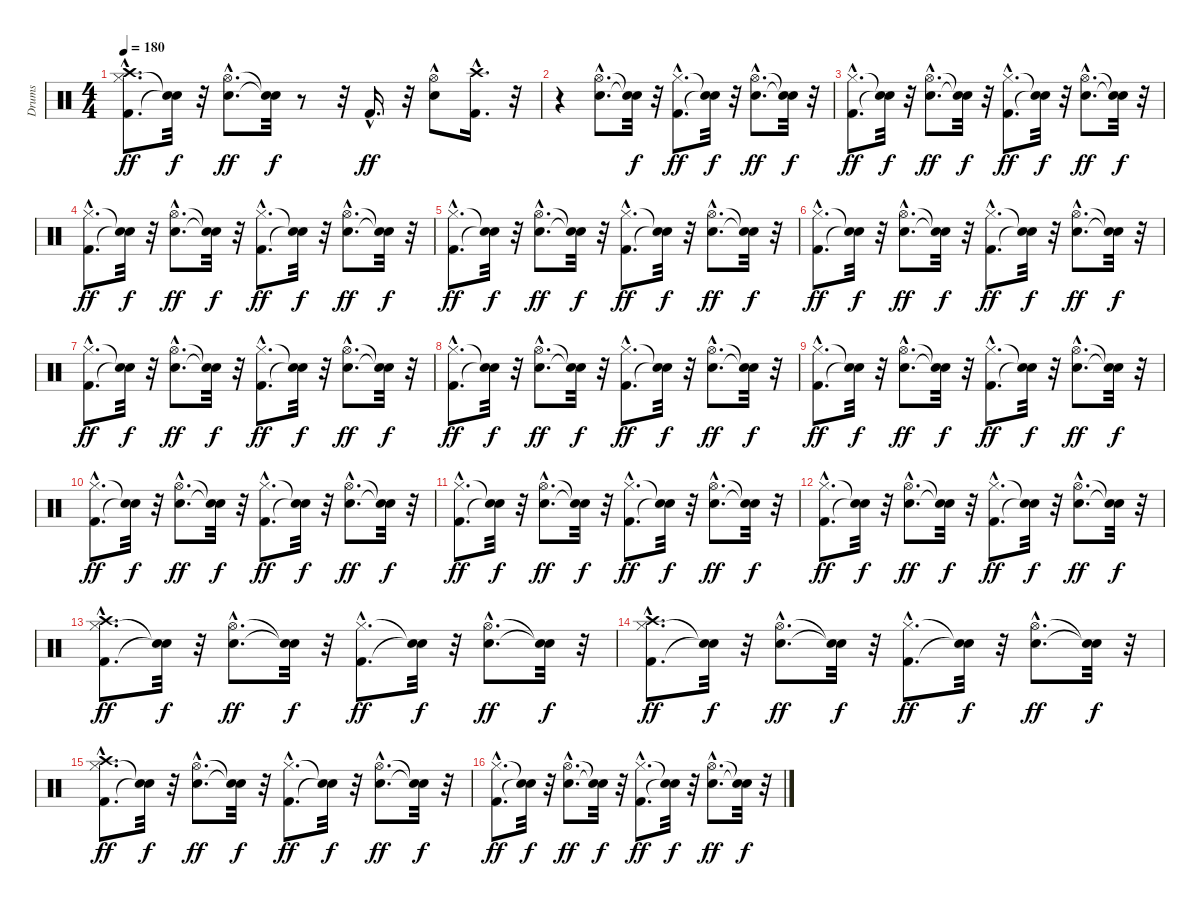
\track ("Drums" "Drums") {instrument percussion}
\staff {score}
\articulation defaults
\ts (4 4)
\tempo 180
\clef neutral
\ks c
("Kick (hit) 2"{hac} "Hi-Hat (closed)"{hac} "Crash high (hit)"{hac}).8{d dy ff} ("Snare (hit)"{t} "Snare (hit)"{t}).32{dy f} r.32 ("Snare (hit) 2"{hac} "Hi-Hat (open)"{hac}).8{d dy ff} ("Snare (hit)"{t} "Snare (hit)"{t}).32{dy f} r.8 r.32 "Kick (hit) 2"{hac}.16{d dy ff} r.32 ("Snare (hit) 2"{hac} "Hi-Hat (open)"{hac}).8 ("Kick (hit) 2"{hac} "Crash high (hit)"{hac}).16{d} r.32 |
r.4 ("Snare (hit) 2"{hac} "Hi-Hat (open)"{hac}).8{d} ("Snare (hit)"{t} "Snare (hit)"{t}).32{dy f} r.32 ("Kick (hit) 2"{hac} "Hi-Hat (closed)"{hac}).8{d dy ff} ("Snare (hit)"{t} "Snare (hit)"{t}).32{dy f} r.32 ("Snare (hit) 2"{hac} "Hi-Hat (open)"{hac}).8{d dy ff} ("Snare (hit)"{t} "Snare (hit)"{t}).32{dy f} r.32 |
("Kick (hit) 2"{hac} "Hi-Hat (closed)"{hac}).8{d dy ff} ("Snare (hit)"{t} "Snare (hit)"{t}).32{dy f} r.32 ("Snare (hit) 2"{hac} "Hi-Hat (open)"{hac}).8{d dy ff} ("Snare (hit)"{t} "Snare (hit)"{t}).32{dy f} r.32 ("Kick (hit) 2"{hac} "Hi-Hat (closed)"{hac}).8{d dy ff} ("Snare (hit)"{t} "Snare (hit)"{t}).32{dy f} r.32 ("Snare (hit) 2"{hac} "Hi-Hat (open)"{hac}).8{d dy ff} ("Snare (hit)"{t} "Snare (hit)"{t}).32{dy f} r.32 |
("Kick (hit) 2"{hac} "Hi-Hat (closed)"{hac}).8{d dy ff} ("Snare (hit)"{t} "Snare (hit)"{t}).32{dy f} r.32 ("Snare (hit) 2"{hac} "Hi-Hat (open)"{hac}).8{d dy ff} ("Snare (hit)"{t} "Snare (hit)"{t}).32{dy f} r.32 ("Kick (hit) 2"{hac} "Hi-Hat (closed)"{hac}).8{d dy ff} ("Snare (hit)"{t} "Snare (hit)"{t}).32{dy f} r.32 ("Snare (hit) 2"{hac} "Hi-Hat (open)"{hac}).8{d dy ff} ("Snare (hit)"{t} "Snare (hit)"{t}).32{dy f} r.32 |
("Kick (hit) 2"{hac} "Hi-Hat (closed)"{hac}).8{d dy ff} ("Snare (hit)"{t} "Snare (hit)"{t}).32{dy f} r.32 ("Snare (hit) 2"{hac} "Hi-Hat (open)"{hac}).8{d dy ff} ("Snare (hit)"{t} "Snare (hit)"{t}).32{dy f} r.32 ("Kick (hit) 2"{hac} "Hi-Hat (closed)"{hac}).8{d dy ff} ("Snare (hit)"{t} "Snare (hit)"{t}).32{dy f} r.32 ("Snare (hit) 2"{hac} "Hi-Hat (open)"{hac}).8{d dy ff} ("Snare (hit)"{t} "Snare (hit)"{t}).32{dy f} r.32 |
("Kick (hit) 2"{hac} "Hi-Hat (closed)"{hac}).8{d dy ff} ("Snare (hit)"{t} "Snare (hit)"{t}).32{dy f} r.32 ("Snare (hit) 2"{hac} "Hi-Hat (open)"{hac}).8{d dy ff} ("Snare (hit)"{t} "Snare (hit)"{t}).32{dy f} r.32 ("Kick (hit) 2"{hac} "Hi-Hat (closed)"{hac}).8{d dy ff} ("Snare (hit)"{t} "Snare (hit)"{t}).32{dy f} r.32 ("Snare (hit) 2"{hac} "Hi-Hat (open)"{hac}).8{d dy ff} ("Snare (hit)"{t} "Snare (hit)"{t}).32{dy f} r.32 |
("Kick (hit) 2"{hac} "Hi-Hat (closed)"{hac}).8{d dy ff} ("Snare (hit)"{t} "Snare (hit)"{t}).32{dy f} r.32 ("Snare (hit) 2"{hac} "Hi-Hat (open)"{hac}).8{d dy ff} ("Snare (hit)"{t} "Snare (hit)"{t}).32{dy f} r.32 ("Kick (hit) 2"{hac} "Hi-Hat (closed)"{hac}).8{d dy ff} ("Snare (hit)"{t} "Snare (hit)"{t}).32{dy f} r.32 ("Snare (hit) 2"{hac} "Hi-Hat (open)"{hac}).8{d dy ff} ("Snare (hit)"{t} "Snare (hit)"{t}).32{dy f} r.32 |
("Kick (hit) 2"{hac} "Hi-Hat (closed)"{hac}).8{d dy ff} ("Snare (hit)"{t} "Snare (hit)"{t}).32{dy f} r.32 ("Snare (hit) 2"{hac} "Hi-Hat (open)"{hac}).8{d dy ff} ("Snare (hit)"{t} "Snare (hit)"{t}).32{dy f} r.32 ("Kick (hit) 2"{hac} "Hi-Hat (closed)"{hac}).8{d dy ff} ("Snare (hit)"{t} "Snare (hit)"{t}).32{dy f} r.32 ("Snare (hit) 2"{hac} "Hi-Hat (open)"{hac}).8{d dy ff} ("Snare (hit)"{t} "Snare (hit)"{t}).32{dy f} r.32 |
("Kick (hit) 2"{hac} "Hi-Hat (closed)"{hac}).8{d dy ff} ("Snare (hit)"{t} "Snare (hit)"{t}).32{dy f} r.32 ("Snare (hit) 2"{hac} "Hi-Hat (open)"{hac}).8{d dy ff} ("Snare (hit)"{t} "Snare (hit)"{t}).32{dy f} r.32 ("Kick (hit) 2"{hac} "Hi-Hat (closed)"{hac}).8{d dy ff} ("Snare (hit)"{t} "Snare (hit)"{t}).32{dy f} r.32 ("Snare (hit) 2"{hac} "Hi-Hat (open)"{hac}).8{d dy ff} ("Snare (hit)"{t} "Snare (hit)"{t}).32{dy f} r.32 |
("Kick (hit) 2"{hac} "Hi-Hat (closed)"{hac}).8{d dy ff} ("Snare (hit)"{t} "Snare (hit)"{t}).32{dy f} r.32 ("Snare (hit) 2"{hac} "Hi-Hat (open)"{hac}).8{d dy ff} ("Snare (hit)"{t} "Snare (hit)"{t}).32{dy f} r.32 ("Kick (hit) 2"{hac} "Hi-Hat (closed)"{hac}).8{d dy ff} ("Snare (hit)"{t} "Snare (hit)"{t}).32{dy f} r.32 ("Snare (hit) 2"{hac} "Hi-Hat (open)"{hac}).8{d dy ff} ("Snare (hit)"{t} "Snare (hit)"{t}).32{dy f} r.32 |
("Kick (hit) 2"{hac} "Hi-Hat (closed)"{hac}).8{d dy ff} ("Snare (hit)"{t} "Snare (hit)"{t}).32{dy f} r.32 ("Snare (hit) 2"{hac} "Hi-Hat (open)"{hac}).8{d dy ff} ("Snare (hit)"{t} "Snare (hit)"{t}).32{dy f} r.32 ("Kick (hit) 2"{hac} "Hi-Hat (closed)"{hac}).8{d dy ff} ("Snare (hit)"{t} "Snare (hit)"{t}).32{dy f} r.32 ("Snare (hit) 2"{hac} "Hi-Hat (open)"{hac}).8{d dy ff} ("Snare (hit)"{t} "Snare (hit)"{t}).32{dy f} r.32 |
("Kick (hit) 2"{hac} "Hi-Hat (closed)"{hac}).8{d dy ff} ("Snare (hit)"{t} "Snare (hit)"{t}).32{dy f} r.32 ("Snare (hit) 2"{hac} "Hi-Hat (open)"{hac}).8{d dy ff} ("Snare (hit)"{t} "Snare (hit)"{t}).32{dy f} r.32 ("Kick (hit) 2"{hac} "Hi-Hat (closed)"{hac}).8{d dy ff} ("Snare (hit)"{t} "Snare (hit)"{t}).32{dy f} r.32 ("Snare (hit) 2"{hac} "Hi-Hat (open)"{hac}).8{d dy ff} ("Snare (hit)"{t} "Snare (hit)"{t}).32{dy f} r.32 |
("Kick (hit) 2"{hac} "Hi-Hat (closed)"{hac} "Crash high (hit)"{hac}).8{d dy ff} ("Snare (hit)"{t} "Snare (hit)"{t}).32{dy f} r.32 ("Snare (hit) 2"{hac} "Hi-Hat (open)"{hac}).8{d dy ff} ("Snare (hit)"{t} "Snare (hit)"{t}).32{dy f} r.32 ("Kick (hit) 2"{hac} "Hi-Hat (closed)"{hac}).8{d dy ff} ("Snare (hit)"{t} "Snare (hit)"{t}).32{dy f} r.32 ("Snare (hit) 2"{hac} "Hi-Hat (open)"{hac}).8{d dy ff} ("Snare (hit)"{t} "Snare (hit)"{t}).32{dy f} r.32 |
("Kick (hit) 2"{hac} "Hi-Hat (closed)"{hac} "Crash high (hit)"{hac}).8{d dy ff} ("Snare (hit)"{t} "Snare (hit)"{t}).32{dy f} r.32 ("Snare (hit) 2"{hac} "Hi-Hat (open)"{hac}).8{d dy ff} ("Snare (hit)"{t} "Snare (hit)"{t}).32{dy f} r.32 ("Kick (hit) 2"{hac} "Hi-Hat (closed)"{hac}).8{d dy ff} ("Snare (hit)"{t} "Snare (hit)"{t}).32{dy f} r.32 ("Snare (hit) 2"{hac} "Hi-Hat (open)"{hac}).8{d dy ff} ("Snare (hit)"{t} "Snare (hit)"{t}).32{dy f} r.32 |
("Kick (hit) 2"{hac} "Hi-Hat (closed)"{hac} "Crash high (hit)"{hac}).8{d dy ff} ("Snare (hit)"{t} "Snare (hit)"{t}).32{dy f} r.32 ("Snare (hit) 2"{hac} "Hi-Hat (open)"{hac}).8{d dy ff} ("Snare (hit)"{t} "Snare (hit)"{t}).32{dy f} r.32 ("Kick (hit) 2"{hac} "Hi-Hat (closed)"{hac}).8{d dy ff} ("Snare (hit)"{t} "Snare (hit)"{t}).32{dy f} r.32 ("Snare (hit) 2"{hac} "Hi-Hat (open)"{hac}).8{d dy ff} ("Snare (hit)"{t} "Snare (hit)"{t}).32{dy f} r.32 |
("Kick (hit) 2"{hac} "Hi-Hat (closed)"{hac}).8{d dy ff} ("Snare (hit)"{t} "Snare (hit)"{t}).32{dy f} r.32 ("Snare (hit) 2"{hac} "Hi-Hat (open)"{hac}).8{d dy ff} ("Snare (hit)"{t} "Snare (hit)"{t}).32{dy f} r.32 ("Kick (hit) 2"{hac} "Hi-Hat (closed)"{hac}).8{d dy ff} ("Snare (hit)"{t} "Snare (hit)"{t}).32{dy f} r.32 ("Snare (hit) 2"{hac} "Hi-Hat (open)"{hac}).8{d dy ff} ("Snare (hit)"{t} "Snare (hit)"{t}).32{dy f} r.32
